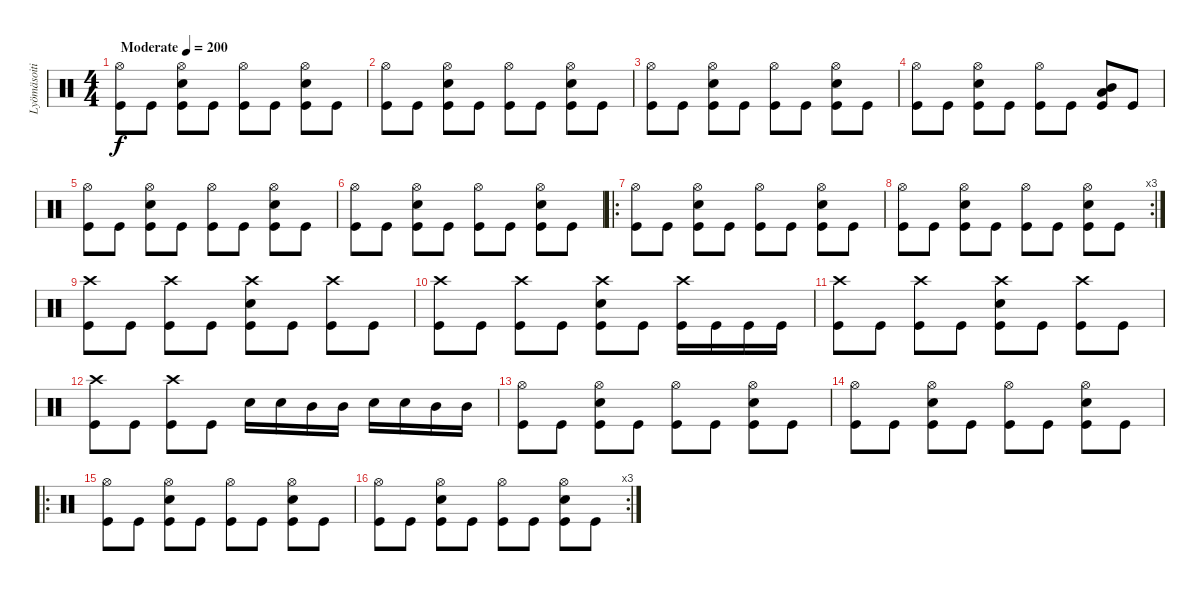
\track ("Lyömäsoitin" "Lyömäsoiti") {instrument percussion}
\staff {score}
\articulation defaults
\ts (4 4)
\tempo (200 "Moderate")
\clef neutral
\ks c
("Hi-Hat (open)" "Kick (hit)").8{dy f} "Kick (hit)".8 ("Snare (hit) 2" "Hi-Hat (open)" "Kick (hit)").8 "Kick (hit)".8 ("Hi-Hat (open)" "Kick (hit)").8 "Kick (hit)".8 ("Snare (hit) 2" "Hi-Hat (open)" "Kick (hit)").8 "Kick (hit)".8 |
("Hi-Hat (open)" "Kick (hit)").8 "Kick (hit)".8 ("Snare (hit) 2" "Hi-Hat (open)" "Kick (hit)").8 "Kick (hit)".8 ("Hi-Hat (open)" "Kick (hit)").8 "Kick (hit)".8 ("Snare (hit) 2" "Hi-Hat (open)" "Kick (hit)").8 "Kick (hit)".8 |
("Hi-Hat (open)" "Kick (hit)").8 "Kick (hit)".8 ("Snare (hit) 2" "Hi-Hat (open)" "Kick (hit)").8 "Kick (hit)".8 ("Hi-Hat (open)" "Kick (hit)").8 "Kick (hit)".8 ("Snare (hit) 2" "Hi-Hat (open)" "Kick (hit)").8 "Kick (hit)".8 |
("Hi-Hat (open)" "Kick (hit)").8 "Kick (hit)".8 ("Snare (hit) 2" "Hi-Hat (open)" "Kick (hit)").8 "Kick (hit)".8 ("Hi-Hat (open)" "Kick (hit)").8 "Kick (hit)".8 ("Low Tom (hit)" "Mid Tom (hit)" "Kick (hit)").8 "Kick (hit)".8 |
("Hi-Hat (open)" "Kick (hit)").8 "Kick (hit)".8 ("Snare (hit) 2" "Hi-Hat (open)" "Kick (hit)").8 "Kick (hit)".8 ("Hi-Hat (open)" "Kick (hit)").8 "Kick (hit)".8 ("Snare (hit) 2" "Hi-Hat (open)" "Kick (hit)").8 "Kick (hit)".8 |
("Hi-Hat (open)" "Kick (hit)").8 "Kick (hit)".8 ("Snare (hit) 2" "Hi-Hat (open)" "Kick (hit)").8 "Kick (hit)".8 ("Hi-Hat (open)" "Kick (hit)").8 "Kick (hit)".8 ("Snare (hit) 2" "Hi-Hat (open)" "Kick (hit)").8 "Kick (hit)".8 |
\ro
("Hi-Hat (open)" "Kick (hit)").8 "Kick (hit)".8 ("Snare (hit) 2" "Hi-Hat (open)" "Kick (hit)").8 "Kick (hit)".8 ("Hi-Hat (open)" "Kick (hit)").8 "Kick (hit)".8 ("Snare (hit) 2" "Hi-Hat (open)" "Kick (hit)").8 "Kick (hit)".8 |
\rc 3
("Hi-Hat (open)" "Kick (hit)").8 "Kick (hit)".8 ("Snare (hit) 2" "Hi-Hat (open)" "Kick (hit)").8 "Kick (hit)".8 ("Hi-Hat (open)" "Kick (hit)").8 "Kick (hit)".8 ("Snare (hit) 2" "Hi-Hat (open)" "Kick (hit)").8 "Kick (hit)".8 |
("Crash high (hit)" "Kick (hit)").8 "Kick (hit)".8 ("Crash high (hit)" "Kick (hit)").8 "Kick (hit)".8 ("Snare (hit) 2" "Crash high (hit)" "Kick (hit)").8 "Kick (hit)".8 ("Crash high (hit)" "Kick (hit)").8 "Kick (hit)".8 |
("Crash high (hit)" "Kick (hit)").8 "Kick (hit)".8 ("Crash high (hit)" "Kick (hit)").8 "Kick (hit)".8 ("Snare (hit) 2" "Crash high (hit)" "Kick (hit)").8 "Kick (hit)".8 ("Crash high (hit)" "Kick (hit)").16 "Kick (hit)".16 "Kick (hit)".16 "Kick (hit)".16 |
("Crash high (hit)" "Kick (hit)").8 "Kick (hit)".8 ("Crash high (hit)" "Kick (hit)").8 "Kick (hit)".8 ("Snare (hit) 2" "Crash high (hit)" "Kick (hit)").8 "Kick (hit)".8 ("Crash high (hit)" "Kick (hit)").8 "Kick (hit)".8 |
("Crash high (hit)" "Kick (hit)").8 "Kick (hit)".8 ("Crash high (hit)" "Kick (hit)").8 "Kick (hit)".8 "Snare (hit) 2".16 "Snare (hit) 2".16 "Mid Tom (hit)".16 "Mid Tom (hit)".16 "Snare (hit) 2".16 "Snare (hit) 2".16 "Mid Tom (hit)".16 "Mid Tom (hit)".16 |
("Hi-Hat (open)" "Kick (hit)").8 "Kick (hit)".8 ("Snare (hit) 2" "Hi-Hat (open)" "Kick (hit)").8 "Kick (hit)".8 ("Hi-Hat (open)" "Kick (hit)").8 "Kick (hit)".8 ("Snare (hit) 2" "Hi-Hat (open)" "Kick (hit)").8 "Kick (hit)".8 |
("Hi-Hat (open)" "Kick (hit)").8 "Kick (hit)".8 ("Snare (hit) 2" "Hi-Hat (open)" "Kick (hit)").8 "Kick (hit)".8 ("Hi-Hat (open)" "Kick (hit)").8 "Kick (hit)".8 ("Snare (hit) 2" "Hi-Hat (open)" "Kick (hit)").8 "Kick (hit)".8 |
\ro
("Hi-Hat (open)" "Kick (hit)").8 "Kick (hit)".8 ("Snare (hit) 2" "Hi-Hat (open)" "Kick (hit)").8 "Kick (hit)".8 ("Hi-Hat (open)" "Kick (hit)").8 "Kick (hit)".8 ("Snare (hit) 2" "Hi-Hat (open)" "Kick (hit)").8 "Kick (hit)".8 |
\rc 3
("Hi-Hat (open)" "Kick (hit)").8 "Kick (hit)".8 ("Snare (hit) 2" "Hi-Hat (open)" "Kick (hit)").8 "Kick (hit)".8 ("Hi-Hat (open)" "Kick (hit)").8 "Kick (hit)".8 ("Snare (hit) 2" "Hi-Hat (open)" "Kick (hit)").8 "Kick (hit)".8
